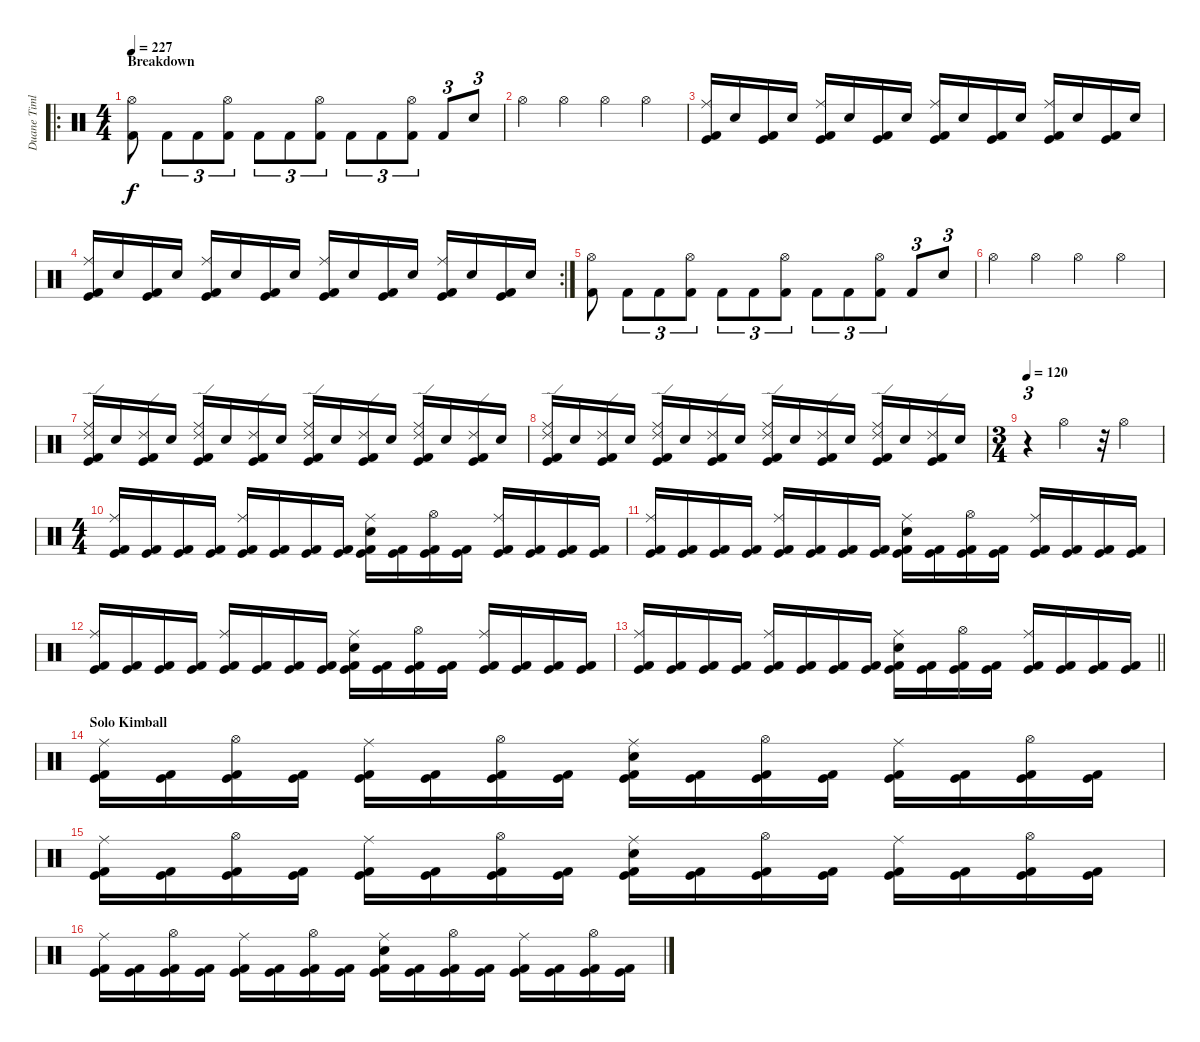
\track ("Duane Timlin" "Duane Timl") {instrument percussion}
\staff {score}
\articulation defaults
\ro
\ts (4 4)
\section ("" "Breakdown")
\tempo 227
\clef neutral
\ks c
("Hi-Hat (open)" "Kick (hit) 2").8{dy f} "Kick (hit) 2".8{tu (3 2)} "Kick (hit) 2".8{tu (3 2)} ("Hi-Hat (open)" "Kick (hit) 2").8{tu (3 2)} "Kick (hit) 2".8{tu (3 2)} "Kick (hit) 2".8{tu (3 2)} ("Hi-Hat (open)" "Kick (hit) 2").8{tu (3 2)} "Kick (hit) 2".8{tu (3 2)} "Kick (hit) 2".8{tu (3 2)} ("Hi-Hat (open)" "Kick (hit) 2").8{tu (3 2)} "Kick (hit) 2".8{tu (3 2)} "Snare (hit) 2".8{tu (3 2)} |
"Hi-Hat (open)".4 "Hi-Hat (open)".4 "Hi-Hat (open)".4 "Hi-Hat (open)".4 |
("Ride (middle)" "Kick (hit)" "Kick (hit) 2").16 "Snare (hit) 2".16 ("Kick (hit)" "Kick (hit) 2").16 "Snare (hit) 2".16 ("Ride (middle)" "Kick (hit)" "Kick (hit) 2").16 "Snare (hit) 2".16 ("Kick (hit)" "Kick (hit) 2").16 "Snare (hit) 2".16 ("Ride (middle)" "Kick (hit)" "Kick (hit) 2").16 "Snare (hit) 2".16 ("Kick (hit)" "Kick (hit) 2").16 "Snare (hit) 2".16 ("Ride (middle)" "Kick (hit)" "Kick (hit) 2").16 "Snare (hit) 2".16 ("Kick (hit)" "Kick (hit) 2").16 "Snare (hit) 2".16 |
\rc 2
("Ride (middle)" "Kick (hit)" "Kick (hit) 2").16 "Snare (hit) 2".16 ("Kick (hit)" "Kick (hit) 2").16 "Snare (hit) 2".16 ("Ride (middle)" "Kick (hit)" "Kick (hit) 2").16 "Snare (hit) 2".16 ("Kick (hit)" "Kick (hit) 2").16 "Snare (hit) 2".16 ("Ride (middle)" "Kick (hit)" "Kick (hit) 2").16 "Snare (hit) 2".16 ("Kick (hit)" "Kick (hit) 2").16 "Snare (hit) 2".16 ("Ride (middle)" "Kick (hit)" "Kick (hit) 2").16 "Snare (hit) 2".16 ("Kick (hit)" "Kick (hit) 2").16 "Snare (hit) 2".16 |
("Hi-Hat (open)" "Kick (hit) 2").8 "Kick (hit) 2".8{tu (3 2)} "Kick (hit) 2".8{tu (3 2)} ("Hi-Hat (open)" "Kick (hit) 2").8{tu (3 2)} "Kick (hit) 2".8{tu (3 2)} "Kick (hit) 2".8{tu (3 2)} ("Hi-Hat (open)" "Kick (hit) 2").8{tu (3 2)} "Kick (hit) 2".8{tu (3 2)} "Kick (hit) 2".8{tu (3 2)} ("Hi-Hat (open)" "Kick (hit) 2").8{tu (3 2)} "Kick (hit) 2".8{tu (3 2)} "Snare (hit) 2".8{tu (3 2)} |
"Hi-Hat (open)".4 "Hi-Hat (open)".4 "Hi-Hat (open)".4 "Hi-Hat (open)".4 |
("Ride (edge) 2" "Ride (middle)" "Kick (hit)" "Kick (hit) 2").16 "Snare (hit) 2".16 ("Ride (edge) 2" "Kick (hit)" "Kick (hit) 2").16 "Snare (hit) 2".16 ("Ride (edge) 2" "Ride (middle)" "Kick (hit)" "Kick (hit) 2").16 "Snare (hit) 2".16 ("Ride (edge) 2" "Kick (hit)" "Kick (hit) 2").16 "Snare (hit) 2".16 ("Ride (edge) 2" "Ride (middle)" "Kick (hit)" "Kick (hit) 2").16 "Snare (hit) 2".16 ("Ride (edge) 2" "Kick (hit)" "Kick (hit) 2").16 "Snare (hit) 2".16 ("Ride (edge) 2" "Ride (middle)" "Kick (hit)" "Kick (hit) 2").16 "Snare (hit) 2".16 ("Ride (edge) 2" "Kick (hit)" "Kick (hit) 2").16 "Snare (hit) 2".16 |
("Ride (edge) 2" "Ride (middle)" "Kick (hit)" "Kick (hit) 2").16 "Snare (hit) 2".16 ("Ride (edge) 2" "Kick (hit)" "Kick (hit) 2").16 "Snare (hit) 2".16 ("Ride (edge) 2" "Ride (middle)" "Kick (hit)" "Kick (hit) 2").16 "Snare (hit) 2".16 ("Ride (edge) 2" "Kick (hit)" "Kick (hit) 2").16 "Snare (hit) 2".16 ("Ride (edge) 2" "Ride (middle)" "Kick (hit)" "Kick (hit) 2").16 "Snare (hit) 2".16 ("Ride (edge) 2" "Kick (hit)" "Kick (hit) 2").16 "Snare (hit) 2".16 ("Ride (edge) 2" "Ride (middle)" "Kick (hit)" "Kick (hit) 2").16 "Snare (hit) 2".16 ("Ride (edge) 2" "Kick (hit)" "Kick (hit) 2").16 "Snare (hit) 2".16 |
\ts (3 4)
\tempo 120
r.4{tu (3 2)} "Hi-Hat (open)".4 r.32 "Hi-Hat (open)".4 |
\ts (4 4)
("Ride (middle)" "Kick (hit)" "Kick (hit) 2").16 ("Kick (hit)" "Kick (hit) 2").16 ("Kick (hit)" "Kick (hit) 2").16 ("Kick (hit)" "Kick (hit) 2").16 ("Ride (middle)" "Kick (hit)" "Kick (hit) 2").16 ("Kick (hit)" "Kick (hit) 2").16 ("Kick (hit)" "Kick (hit) 2").16 ("Kick (hit)" "Kick (hit) 2").16 ("Ride (middle)" "Snare (hit) 2" "Kick (hit)" "Kick (hit) 2").16 ("Kick (hit)" "Kick (hit) 2").16 ("Hi-Hat (open)" "Kick (hit)" "Kick (hit) 2").16 ("Kick (hit)" "Kick (hit) 2").16 ("Ride (middle)" "Kick (hit)" "Kick (hit) 2").16 ("Kick (hit)" "Kick (hit) 2").16 ("Kick (hit)" "Kick (hit) 2").16 ("Kick (hit)" "Kick (hit) 2").16 |
("Ride (middle)" "Kick (hit)" "Kick (hit) 2").16 ("Kick (hit)" "Kick (hit) 2").16 ("Kick (hit)" "Kick (hit) 2").16 ("Kick (hit)" "Kick (hit) 2").16 ("Ride (middle)" "Kick (hit)" "Kick (hit) 2").16 ("Kick (hit)" "Kick (hit) 2").16 ("Kick (hit)" "Kick (hit) 2").16 ("Kick (hit)" "Kick (hit) 2").16 ("Ride (middle)" "Snare (hit) 2" "Kick (hit)" "Kick (hit) 2").16 ("Kick (hit)" "Kick (hit) 2").16 ("Hi-Hat (open)" "Kick (hit)" "Kick (hit) 2").16 ("Kick (hit)" "Kick (hit) 2").16 ("Ride (middle)" "Kick (hit)" "Kick (hit) 2").16 ("Kick (hit)" "Kick (hit) 2").16 ("Kick (hit)" "Kick (hit) 2").16 ("Kick (hit)" "Kick (hit) 2").16 |
("Ride (middle)" "Kick (hit)" "Kick (hit) 2").16 ("Kick (hit)" "Kick (hit) 2").16 ("Kick (hit)" "Kick (hit) 2").16 ("Kick (hit)" "Kick (hit) 2").16 ("Ride (middle)" "Kick (hit)" "Kick (hit) 2").16 ("Kick (hit)" "Kick (hit) 2").16 ("Kick (hit)" "Kick (hit) 2").16 ("Kick (hit)" "Kick (hit) 2").16 ("Ride (middle)" "Snare (hit) 2" "Kick (hit)" "Kick (hit) 2").16 ("Kick (hit)" "Kick (hit) 2").16 ("Hi-Hat (open)" "Kick (hit)" "Kick (hit) 2").16 ("Kick (hit)" "Kick (hit) 2").16 ("Ride (middle)" "Kick (hit)" "Kick (hit) 2").16 ("Kick (hit)" "Kick (hit) 2").16 ("Kick (hit)" "Kick (hit) 2").16 ("Kick (hit)" "Kick (hit) 2").16 |
\barLineRight lightlight
("Ride (middle)" "Kick (hit)" "Kick (hit) 2").16 ("Kick (hit)" "Kick (hit) 2").16 ("Kick (hit)" "Kick (hit) 2").16 ("Kick (hit)" "Kick (hit) 2").16 ("Ride (middle)" "Kick (hit)" "Kick (hit) 2").16 ("Kick (hit)" "Kick (hit) 2").16 ("Kick (hit)" "Kick (hit) 2").16 ("Kick (hit)" "Kick (hit) 2").16 ("Ride (middle)" "Snare (hit) 2" "Kick (hit)" "Kick (hit) 2").16 ("Kick (hit)" "Kick (hit) 2").16 ("Hi-Hat (open)" "Kick (hit)" "Kick (hit) 2").16 ("Kick (hit)" "Kick (hit) 2").16 ("Ride (middle)" "Kick (hit)" "Kick (hit) 2").16 ("Kick (hit)" "Kick (hit) 2").16 ("Kick (hit)" "Kick (hit) 2").16 ("Kick (hit)" "Kick (hit) 2").16 |
\section ("" "Solo Kimball")
("Ride (middle)" "Kick (hit)" "Kick (hit) 2").16 ("Kick (hit)" "Kick (hit) 2").16 ("Hi-Hat (open)" "Kick (hit)" "Kick (hit) 2").16 ("Kick (hit)" "Kick (hit) 2").16 ("Ride (middle)" "Kick (hit)" "Kick (hit) 2").16 ("Kick (hit)" "Kick (hit) 2").16 ("Hi-Hat (open)" "Kick (hit)" "Kick (hit) 2").16 ("Kick (hit)" "Kick (hit) 2").16 ("Ride (middle)" "Snare (hit) 2" "Kick (hit)" "Kick (hit) 2").16 ("Kick (hit)" "Kick (hit) 2").16 ("Hi-Hat (open)" "Kick (hit)" "Kick (hit) 2").16 ("Kick (hit)" "Kick (hit) 2").16 ("Ride (middle)" "Kick (hit)" "Kick (hit) 2").16 ("Kick (hit)" "Kick (hit) 2").16 ("Hi-Hat (open)" "Kick (hit)" "Kick (hit) 2").16 ("Kick (hit)" "Kick (hit) 2").16 |
("Ride (middle)" "Kick (hit)" "Kick (hit) 2").16 ("Kick (hit)" "Kick (hit) 2").16 ("Hi-Hat (open)" "Kick (hit)" "Kick (hit) 2").16 ("Kick (hit)" "Kick (hit) 2").16 ("Ride (middle)" "Kick (hit)" "Kick (hit) 2").16 ("Kick (hit)" "Kick (hit) 2").16 ("Hi-Hat (open)" "Kick (hit)" "Kick (hit) 2").16 ("Kick (hit)" "Kick (hit) 2").16 ("Ride (middle)" "Snare (hit) 2" "Kick (hit)" "Kick (hit) 2").16 ("Kick (hit)" "Kick (hit) 2").16 ("Hi-Hat (open)" "Kick (hit)" "Kick (hit) 2").16 ("Kick (hit)" "Kick (hit) 2").16 ("Ride (middle)" "Kick (hit)" "Kick (hit) 2").16 ("Kick (hit)" "Kick (hit) 2").16 ("Hi-Hat (open)" "Kick (hit)" "Kick (hit) 2").16 ("Kick (hit)" "Kick (hit) 2").16 |
("Ride (middle)" "Kick (hit)" "Kick (hit) 2").16 ("Kick (hit)" "Kick (hit) 2").16 ("Hi-Hat (open)" "Kick (hit)" "Kick (hit) 2").16 ("Kick (hit)" "Kick (hit) 2").16 ("Ride (middle)" "Kick (hit)" "Kick (hit) 2").16 ("Kick (hit)" "Kick (hit) 2").16 ("Hi-Hat (open)" "Kick (hit)" "Kick (hit) 2").16 ("Kick (hit)" "Kick (hit) 2").16 ("Ride (middle)" "Snare (hit) 2" "Kick (hit)" "Kick (hit) 2").16 ("Kick (hit)" "Kick (hit) 2").16 ("Hi-Hat (open)" "Kick (hit)" "Kick (hit) 2").16 ("Kick (hit)" "Kick (hit) 2").16 ("Ride (middle)" "Kick (hit)" "Kick (hit) 2").16 ("Kick (hit)" "Kick (hit) 2").16 ("Hi-Hat (open)" "Kick (hit)" "Kick (hit) 2").16 ("Kick (hit)" "Kick (hit) 2").16
